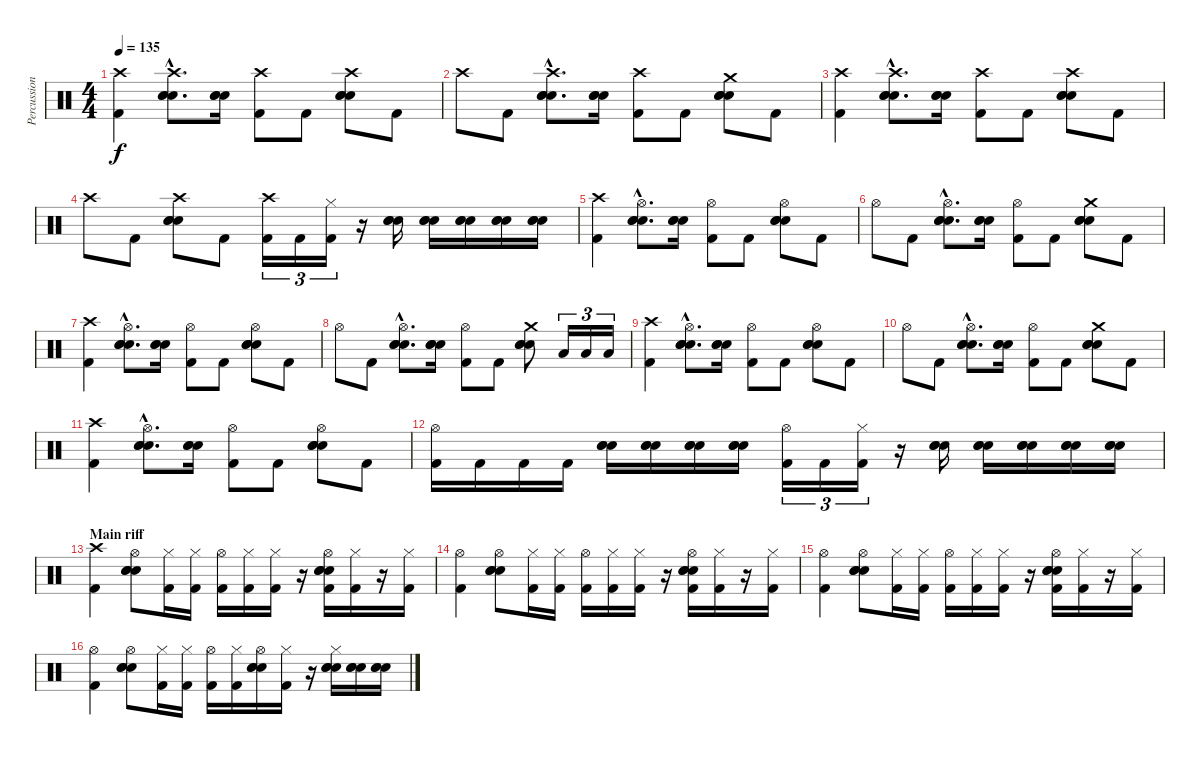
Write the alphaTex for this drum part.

\track ("Percussions" "Percussion") {instrument percussion}
\staff {score}
\articulation defaults
\ts (4 4)
\tempo 135
\clef neutral
\ks c
("Crash high (hit)" "Kick (hit) 2").4{dy f} ("Crash high (hit)"{hac} "Snare (hit) 2"{hac} "Electric Snare (hit)"{hac} "Electric Snare (hit)"{hac}).8{d} ("Snare (hit) 2" "Electric Snare (hit)" "Electric Snare (hit)").16 ("Crash high (hit)" "Kick (hit) 2").8 "Kick (hit) 2".8 ("Crash high (hit)" "Snare (hit) 2" "Electric Snare (hit)" "Electric Snare (hit)").8 "Kick (hit) 2".8 |
"Crash high (hit)".8 "Kick (hit) 2".8 ("Crash high (hit)"{hac} "Snare (hit) 2"{hac} "Electric Snare (hit)"{hac} "Electric Snare (hit)"{hac}).8{d} ("Snare (hit) 2" "Electric Snare (hit)" "Electric Snare (hit)").16 ("Crash high (hit)" "Kick (hit) 2").8 "Kick (hit) 2".8 ("Crash medium (hit)" "Snare (hit) 2" "Electric Snare (hit)" "Electric Snare (hit)").8 "Kick (hit) 2".8 |
("Crash high (hit)" "Kick (hit) 2").4 ("Crash high (hit)"{hac} "Snare (hit) 2"{hac} "Electric Snare (hit)"{hac} "Electric Snare (hit)"{hac}).8{d} ("Snare (hit) 2" "Electric Snare (hit)" "Electric Snare (hit)").16 ("Crash high (hit)" "Kick (hit) 2").8 "Kick (hit) 2".8 ("Crash high (hit)" "Snare (hit) 2" "Electric Snare (hit)" "Electric Snare (hit)").8 "Kick (hit) 2".8 |
"Crash high (hit)".8 "Kick (hit) 2".8 ("Crash high (hit)" "Snare (hit) 2" "Electric Snare (hit)" "Electric Snare (hit)").8 "Kick (hit) 2".8 ("Crash high (hit)" "Kick (hit) 2").16{tu (3 2)} "Kick (hit) 2".16{tu (3 2)} ("Hi-Hat (closed)" "Kick (hit) 2").16{tu (3 2)} r.16 ("Snare (hit) 2" "Electric Snare (hit)" "Electric Snare (hit)").16 ("Snare (hit) 2" "Electric Snare (hit)" "Electric Snare (hit)").16 ("Snare (hit) 2" "Electric Snare (hit)" "Electric Snare (hit)").16 ("Snare (hit) 2" "Electric Snare (hit)" "Electric Snare (hit)").16 ("Snare (hit) 2" "Electric Snare (hit)" "Electric Snare (hit)").16 |
("Crash high (hit)" "Kick (hit) 2").4 ("Hi-Hat (open)"{hac} "Snare (hit) 2"{hac} "Electric Snare (hit)"{hac} "Electric Snare (hit)"{hac}).8{d} ("Snare (hit) 2" "Electric Snare (hit)" "Electric Snare (hit)").16 ("Hi-Hat (open)" "Kick (hit) 2").8 "Kick (hit) 2".8 ("Hi-Hat (open)" "Snare (hit) 2" "Electric Snare (hit)" "Electric Snare (hit)").8 "Kick (hit) 2".8 |
"Hi-Hat (open)".8 "Kick (hit) 2".8 ("Hi-Hat (open)"{hac} "Snare (hit) 2"{hac} "Electric Snare (hit)"{hac} "Electric Snare (hit)"{hac}).8{d} ("Snare (hit) 2" "Electric Snare (hit)" "Electric Snare (hit)").16 ("Hi-Hat (open)" "Kick (hit) 2").8 "Kick (hit) 2".8 ("Crash medium (hit)" "Snare (hit) 2" "Electric Snare (hit)" "Electric Snare (hit)").8 "Kick (hit) 2".8 |
("Crash high (hit)" "Kick (hit) 2").4 ("Hi-Hat (open)"{hac} "Snare (hit) 2"{hac} "Electric Snare (hit)"{hac} "Electric Snare (hit)"{hac}).8{d} ("Snare (hit) 2" "Electric Snare (hit)" "Electric Snare (hit)").16 ("Hi-Hat (open)" "Kick (hit) 2").8 "Kick (hit) 2".8 ("Hi-Hat (open)" "Snare (hit) 2" "Electric Snare (hit)" "Electric Snare (hit)").8 "Kick (hit) 2".8 |
"Hi-Hat (open)".8 "Kick (hit) 2".8 ("Hi-Hat (open)"{hac} "Snare (hit) 2"{hac} "Electric Snare (hit)"{hac} "Electric Snare (hit)"{hac}).8{d} ("Snare (hit) 2" "Electric Snare (hit)" "Electric Snare (hit)").16 ("Hi-Hat (open)" "Kick (hit) 2").8 "Kick (hit) 2".8 ("Crash medium (hit)" "Snare (hit) 2" "Electric Snare (hit)" "Electric Snare (hit)").8 "Low Tom (hit)".16{tu (3 2)} "Low Tom (hit)".16{tu (3 2)} "Low Tom (hit)".16{tu (3 2)} |
("Crash high (hit)" "Kick (hit) 2").4 ("Hi-Hat (open)"{hac} "Snare (hit) 2"{hac} "Electric Snare (hit)"{hac} "Electric Snare (hit)"{hac}).8{d} ("Snare (hit) 2" "Electric Snare (hit)" "Electric Snare (hit)").16 ("Hi-Hat (open)" "Kick (hit) 2").8 "Kick (hit) 2".8 ("Hi-Hat (open)" "Snare (hit) 2" "Electric Snare (hit)" "Electric Snare (hit)").8 "Kick (hit) 2".8 |
"Hi-Hat (open)".8 "Kick (hit) 2".8 ("Hi-Hat (open)"{hac} "Snare (hit) 2"{hac} "Electric Snare (hit)"{hac} "Electric Snare (hit)"{hac}).8{d} ("Snare (hit) 2" "Electric Snare (hit)" "Electric Snare (hit)").16 ("Hi-Hat (open)" "Kick (hit) 2").8 "Kick (hit) 2".8 ("Crash medium (hit)" "Snare (hit) 2" "Electric Snare (hit)" "Electric Snare (hit)").8 "Kick (hit) 2".8 |
("Crash high (hit)" "Kick (hit) 2").4 ("Hi-Hat (open)"{hac} "Snare (hit) 2"{hac} "Electric Snare (hit)"{hac} "Electric Snare (hit)"{hac}).8{d} ("Snare (hit) 2" "Electric Snare (hit)" "Electric Snare (hit)").16 ("Hi-Hat (open)" "Kick (hit) 2").8 "Kick (hit) 2".8 ("Hi-Hat (open)" "Snare (hit) 2" "Electric Snare (hit)" "Electric Snare (hit)").8 "Kick (hit) 2".8 |
("Hi-Hat (open)" "Kick (hit) 2").16 "Kick (hit) 2".16 "Kick (hit) 2".16 "Kick (hit) 2".16 ("Snare (hit) 2" "Electric Snare (hit)" "Electric Snare (hit)").16 ("Snare (hit) 2" "Electric Snare (hit)" "Electric Snare (hit)").16 ("Snare (hit) 2" "Electric Snare (hit)" "Electric Snare (hit)").16 ("Snare (hit) 2" "Electric Snare (hit)" "Electric Snare (hit)").16 ("Hi-Hat (open)" "Kick (hit) 2").16{tu (3 2)} "Kick (hit) 2".16{tu (3 2)} ("Hi-Hat (closed)" "Kick (hit) 2").16{tu (3 2)} r.16 ("Snare (hit) 2" "Electric Snare (hit)" "Electric Snare (hit)").16 ("Snare (hit) 2" "Electric Snare (hit)" "Electric Snare (hit)").16 ("Snare (hit) 2" "Electric Snare (hit)" "Electric Snare (hit)").16 ("Snare (hit) 2" "Electric Snare (hit)" "Electric Snare (hit)").16 ("Snare (hit) 2" "Electric Snare (hit)" "Electric Snare (hit)").16 |
\section ("" "Main riff")
("Crash high (hit)" "Kick (hit) 2").4 ("Hi-Hat (open)" "Snare (hit) 2" "Electric Snare (hit)" "Electric Snare (hit)").8 ("Hi-Hat (closed)" "Kick (hit) 2").16 ("Hi-Hat (closed)" "Kick (hit) 2").16 ("Hi-Hat (open)" "Kick (hit) 2").16 ("Hi-Hat (closed)" "Kick (hit) 2").16 ("Hi-Hat (closed)" "Kick (hit) 2").16 r.16 ("Hi-Hat (open)" "Kick (hit) 2" "Snare (hit) 2" "Electric Snare (hit)" "Electric Snare (hit)").16 ("Hi-Hat (closed)" "Kick (hit) 2").16 r.16 ("Hi-Hat (closed)" "Kick (hit) 2").16 |
("Hi-Hat (open)" "Kick (hit) 2").4 ("Hi-Hat (open)" "Snare (hit) 2" "Electric Snare (hit)" "Electric Snare (hit)").8 ("Hi-Hat (closed)" "Kick (hit) 2").16 ("Hi-Hat (closed)" "Kick (hit) 2").16 ("Hi-Hat (open)" "Kick (hit) 2").16 ("Hi-Hat (closed)" "Kick (hit) 2").16 ("Hi-Hat (closed)" "Kick (hit) 2").16 r.16 ("Hi-Hat (open)" "Kick (hit) 2" "Snare (hit) 2" "Electric Snare (hit)" "Electric Snare (hit)").16 ("Hi-Hat (closed)" "Kick (hit) 2").16 r.16 ("Hi-Hat (closed)" "Kick (hit) 2").16 |
("Hi-Hat (open)" "Kick (hit) 2").4 ("Hi-Hat (open)" "Snare (hit) 2" "Electric Snare (hit)" "Electric Snare (hit)").8 ("Hi-Hat (closed)" "Kick (hit) 2").16 ("Hi-Hat (closed)" "Kick (hit) 2").16 ("Hi-Hat (open)" "Kick (hit) 2").16 ("Hi-Hat (closed)" "Kick (hit) 2").16 ("Hi-Hat (closed)" "Kick (hit) 2").16 r.16 ("Hi-Hat (open)" "Kick (hit) 2" "Snare (hit) 2" "Electric Snare (hit)" "Electric Snare (hit)").16 ("Hi-Hat (closed)" "Kick (hit) 2").16 r.16 ("Hi-Hat (closed)" "Kick (hit) 2").16 |
("Hi-Hat (open)" "Kick (hit) 2").4 ("Hi-Hat (open)" "Snare (hit) 2" "Electric Snare (hit)" "Electric Snare (hit)").8 ("Hi-Hat (closed)" "Kick (hit) 2").16 ("Hi-Hat (closed)" "Kick (hit) 2").16 ("Hi-Hat (open)" "Kick (hit) 2").16 ("Hi-Hat (closed)" "Kick (hit) 2").16 ("Hi-Hat (open)" "Snare (hit) 2" "Electric Snare (hit)" "Electric Snare (hit)").16 ("Hi-Hat (closed)" "Kick (hit) 2").16 r.16 ("Hi-Hat (closed)" "Snare (hit) 2" "Electric Snare (hit)" "Electric Snare (hit)").16 ("Snare (hit) 2" "Electric Snare (hit)" "Electric Snare (hit)").16 ("Snare (hit) 2" "Electric Snare (hit)" "Electric Snare (hit)").16
